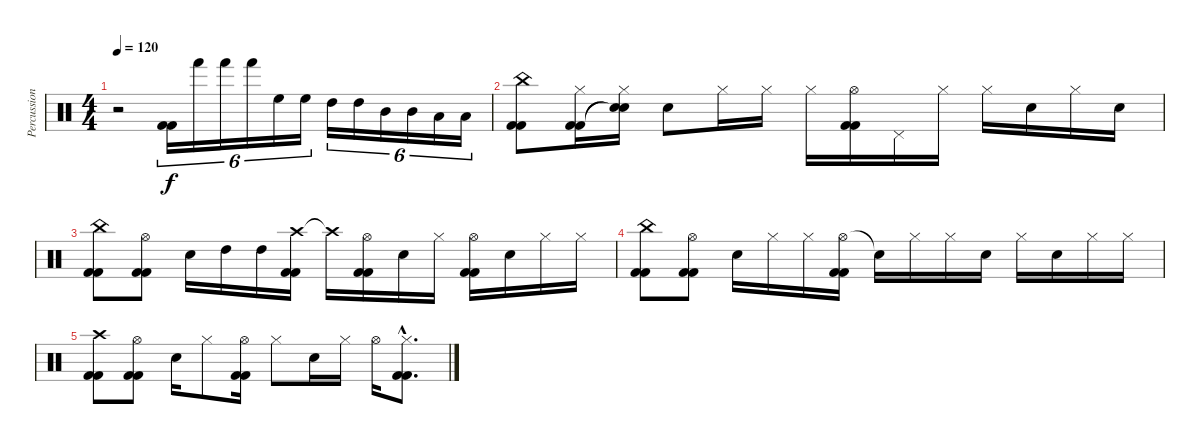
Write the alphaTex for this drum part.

\track ("Percussioni" "Percussion") {instrument percussion}
\staff {score}
\articulation defaults
\ts (4 4)
\tempo 120
\clef neutral
\ks c
r.2{dy f} ("Kick (hit) 2" "Kick (hit) 2").16{tu (6 4)} "Hand (hit)".16{tu (6 4)} "Hand (hit)".16{tu (6 4)} "Hand (hit)".16{tu (6 4)} "High Floor Tom (hit)".16{tu (6 4)} "High Floor Tom (hit)".16{tu (6 4)} "High Tom (hit)".16{tu (6 4)} "High Tom (hit)".16{tu (6 4)} "Mid Tom (hit)".16{tu (6 4)} "Mid Tom (hit)".16{tu (6 4)} "Low Tom (hit)".16{tu (6 4)} "Low Tom (hit)".16{tu (6 4)} |
("China (hit)" "Kick (hit) 2" "Kick (hit) 2").8 ("Hi-Hat (closed)" "Kick (hit) 2" "Kick (hit) 2").16 ("Hi-Hat (closed)" "Snare (hit)"{t} "Snare (hit)"{t}).16 "Snare (hit) 2".8 "Hi-Hat (closed)".16 "Hi-Hat (closed)".16 "Hi-Hat (closed)".16 ("Hi-Hat (open)" "Kick (hit) 2" "Kick (hit) 2").16 "Pedal Hi-Hat (hit)".16 "Hi-Hat (closed)".16 "Hi-Hat (closed)".16 "Snare (hit) 2".16 "Hi-Hat (closed)".16 "Snare (hit) 2".16 |
("China (hit)" "Kick (hit) 2" "Kick (hit) 2").8 ("Hi-Hat (open)" "Kick (hit) 2" "Kick (hit) 2").8 "Snare (hit) 2".16 "High Tom (hit)".16 "High Tom (hit)".16 ("Crash high (hit)" "Kick (hit) 2" "Kick (hit) 2").16 "Crash high (hit)"{t}.16 ("Hi-Hat (open)" "Kick (hit) 2" "Kick (hit) 2").16 "Snare (hit) 2".16 "Hi-Hat (closed)".16 ("Hi-Hat (open)" "Kick (hit) 2" "Kick (hit) 2").16 "Snare (hit) 2".16 "Hi-Hat (closed)".16 "Hi-Hat (closed)".16 |
("China (hit)" "Kick (hit) 2" "Kick (hit) 2").8 ("Hi-Hat (open)" "Kick (hit) 2" "Kick (hit) 2").8 "Snare (hit) 2".16 "Hi-Hat (closed)".16 "Hi-Hat (closed)".16 ("Hi-Hat (open)" "Kick (hit) 2" "Kick (hit) 2").16 "Snare (hit)"{t}.16 "Hi-Hat (closed)".16 "Hi-Hat (closed)".16 "Snare (hit) 2".16 "Hi-Hat (closed)".16 "Snare (hit) 2".16 "Hi-Hat (closed)".16 "Hi-Hat (closed)".16 |
("Crash high (hit)" "Kick (hit) 2" "Kick (hit) 2").8 ("Hi-Hat (open)" "Kick (hit) 2" "Kick (hit) 2").8 "Snare (hit) 2".16 "Hi-Hat (closed)".8 ("Hi-Hat (open)" "Kick (hit) 2" "Kick (hit) 2").16 "Hi-Hat (closed)".8 "Snare (hit) 2".16 "Hi-Hat (closed)".16 "Hi-Hat (open)".16 ("Hi-Hat (closed)"{hac} "Kick (hit) 2"{hac} "Kick (hit) 2"{hac}).8{d}
